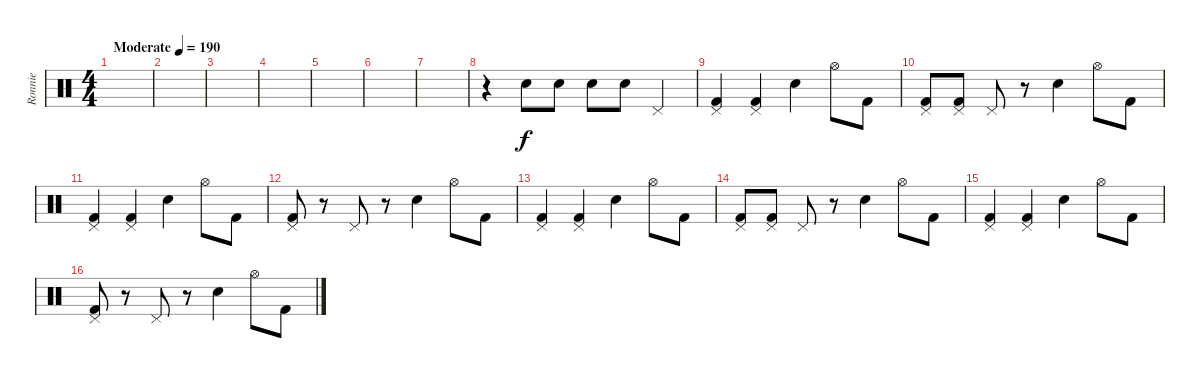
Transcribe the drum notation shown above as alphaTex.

\track ("Ronnie" "Ronnie") {instrument percussion}
\staff {score}
\articulation defaults
\ts (4 4)
\tempo (190 "Moderate")
\clef neutral
\ks c
|
|
|
|
|
|
|
r.4 "Electric Snare (hit)".8 "Electric Snare (hit)".8 "Electric Snare (hit)".8 "Electric Snare (hit)".8 "Pedal Hi-Hat (hit)".4 |
("Pedal Hi-Hat (hit)" "Kick (hit) 2").4 ("Pedal Hi-Hat (hit)" "Kick (hit) 2").4 "Electric Snare (hit)".4 "Hi-Hat (open)".8 "Kick (hit) 2".8 |
("Pedal Hi-Hat (hit)" "Kick (hit) 2").8 ("Pedal Hi-Hat (hit)" "Kick (hit) 2").8 "Pedal Hi-Hat (hit)".8 r.8 "Electric Snare (hit)".4 "Hi-Hat (open)".8 "Kick (hit) 2".8 |
("Pedal Hi-Hat (hit)" "Kick (hit) 2").4 ("Pedal Hi-Hat (hit)" "Kick (hit) 2").4 "Electric Snare (hit)".4 "Hi-Hat (open)".8 "Kick (hit) 2".8 |
("Pedal Hi-Hat (hit)" "Kick (hit) 2").8 r.8 "Pedal Hi-Hat (hit)".8 r.8 "Electric Snare (hit)".4 "Hi-Hat (open)".8 "Kick (hit) 2".8 |
("Pedal Hi-Hat (hit)" "Kick (hit) 2").4 ("Pedal Hi-Hat (hit)" "Kick (hit) 2").4 "Electric Snare (hit)".4 "Hi-Hat (open)".8 "Kick (hit) 2".8 |
("Pedal Hi-Hat (hit)" "Kick (hit) 2").8 ("Pedal Hi-Hat (hit)" "Kick (hit) 2").8 "Pedal Hi-Hat (hit)".8 r.8 "Electric Snare (hit)".4 "Hi-Hat (open)".8 "Kick (hit) 2".8 |
("Pedal Hi-Hat (hit)" "Kick (hit) 2").4 ("Pedal Hi-Hat (hit)" "Kick (hit) 2").4 "Electric Snare (hit)".4 "Hi-Hat (open)".8 "Kick (hit) 2".8 |
("Pedal Hi-Hat (hit)" "Kick (hit) 2").8 r.8 "Pedal Hi-Hat (hit)".8 r.8 "Electric Snare (hit)".4 "Hi-Hat (open)".8 "Kick (hit) 2".8
